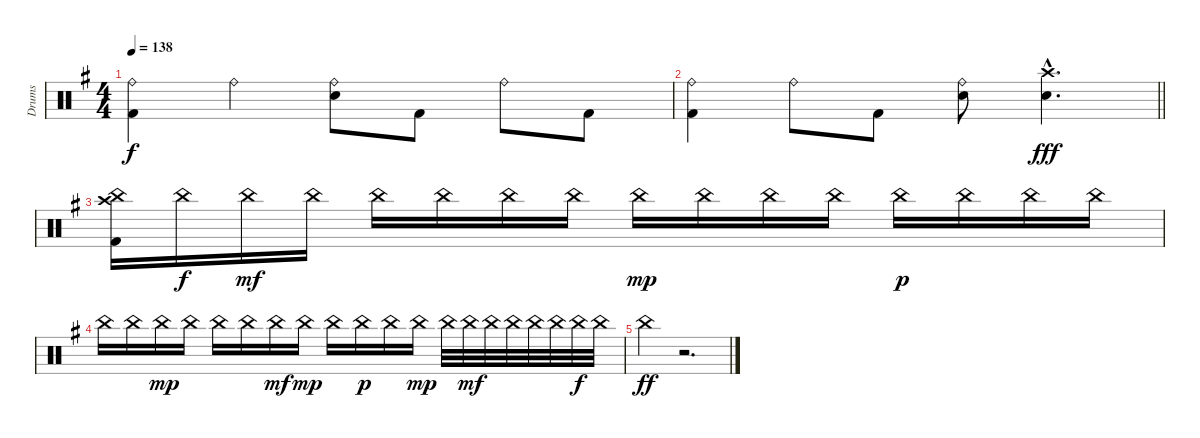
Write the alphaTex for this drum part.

\track ("Drums" "Drums") {instrument percussion}
\staff {score}
\articulation defaults
\ts (4 4)
\tempo 138
\clef neutral
\ks eminor
("Ride (bell)" "Kick (hit) 2").4{dy f} "Ride (bell)".4 ("Ride (bell)" "Snare (hit) 2").8 "Kick (hit) 2".8 "Ride (bell)".8 "Kick (hit) 2".8 |
\barLineRight lightlight
("Ride (bell)" "Kick (hit) 2").4 "Ride (bell)".8 "Kick (hit) 2".8 ("Ride (bell)" "Snare (hit) 2").8 ("Crash high (hit)"{hac} "Snare (hit) 2"{hac}).4{d dy fff} |
("China (hit)" "Crash high (hit)" "Kick (hit) 2").16 "China (hit)".16{dy f} "China (hit)".16{dy mf} "China (hit)".16 "China (hit)".16 "China (hit)".16 "China (hit)".16 "China (hit)".16 "China (hit)".16{dy mp} "China (hit)".16 "China (hit)".16 "China (hit)".16 "China (hit)".16{dy p} "China (hit)".16 "China (hit)".16 "China (hit)".16 |
"China (hit)".16 "China (hit)".16 "China (hit)".16{dy mp} "China (hit)".16 "China (hit)".16 "China (hit)".16 "China (hit)".16{dy mf} "China (hit)".16{dy mp} "China (hit)".16 "China (hit)".16{dy p} "China (hit)".16 "China (hit)".16{dy mp} "China (hit)".32 "China (hit)".32{dy mf} "China (hit)".32 "China (hit)".32 "China (hit)".32 "China (hit)".32 "China (hit)".32{dy f} "China (hit)".32 |
"China (hit)".4{dy ff} r.2{d}
